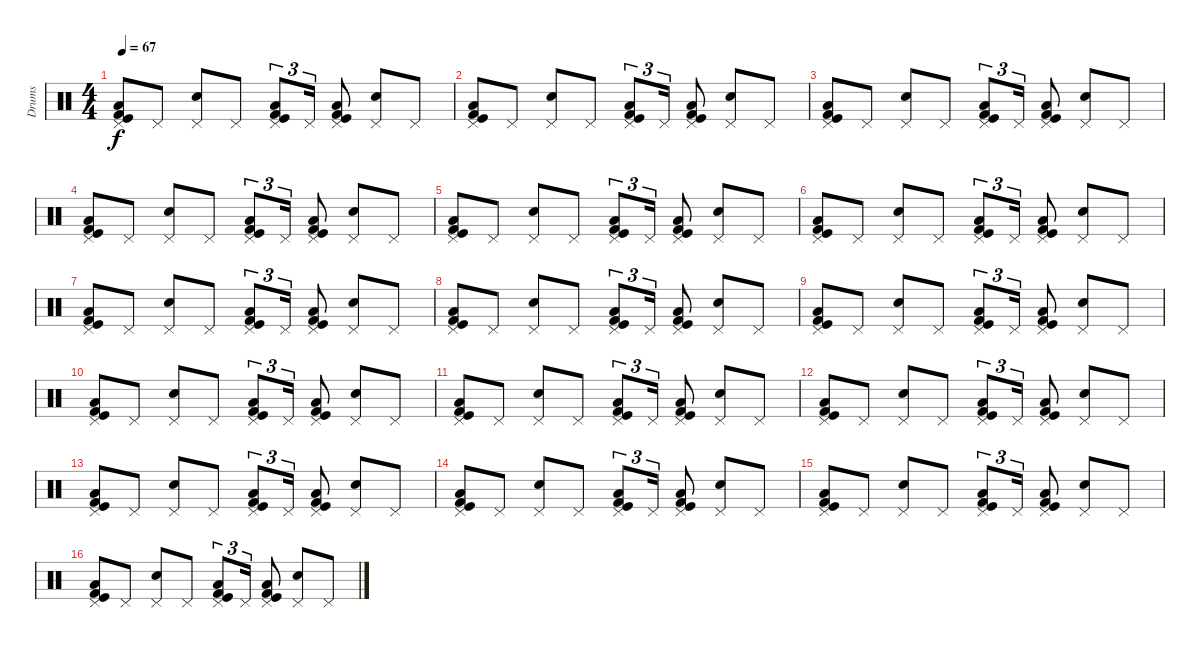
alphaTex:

\track ("Drums" "Drums") {instrument percussion}
\staff {score}
\articulation defaults
\ts (4 4)
\tempo 67
\clef neutral
\ks c
("Pedal Hi-Hat (hit)" "Kick (hit) 2" "Kick (hit)" "Low Tom (hit)").8{dy f} "Pedal Hi-Hat (hit)".8 ("Pedal Hi-Hat (hit)" "Electric Snare (hit)").8 "Pedal Hi-Hat (hit)".8 ("Pedal Hi-Hat (hit)" "Kick (hit) 2" "Kick (hit)" "Low Tom (hit)").8{tu (3 2)} "Pedal Hi-Hat (hit)".16{tu (3 2)} ("Pedal Hi-Hat (hit)" "Kick (hit) 2" "Kick (hit)" "Low Tom (hit)").8 ("Pedal Hi-Hat (hit)" "Electric Snare (hit)").8 "Pedal Hi-Hat (hit)".8 |
("Pedal Hi-Hat (hit)" "Kick (hit) 2" "Kick (hit)" "Low Tom (hit)").8 "Pedal Hi-Hat (hit)".8 ("Pedal Hi-Hat (hit)" "Electric Snare (hit)").8 "Pedal Hi-Hat (hit)".8 ("Pedal Hi-Hat (hit)" "Kick (hit) 2" "Kick (hit)" "Low Tom (hit)").8{tu (3 2)} "Pedal Hi-Hat (hit)".16{tu (3 2)} ("Pedal Hi-Hat (hit)" "Kick (hit) 2" "Kick (hit)" "Low Tom (hit)").8 ("Pedal Hi-Hat (hit)" "Electric Snare (hit)").8 "Pedal Hi-Hat (hit)".8 |
("Pedal Hi-Hat (hit)" "Kick (hit) 2" "Kick (hit)" "Low Tom (hit)").8 "Pedal Hi-Hat (hit)".8 ("Pedal Hi-Hat (hit)" "Electric Snare (hit)").8 "Pedal Hi-Hat (hit)".8 ("Pedal Hi-Hat (hit)" "Kick (hit) 2" "Kick (hit)" "Low Tom (hit)").8{tu (3 2)} "Pedal Hi-Hat (hit)".16{tu (3 2)} ("Pedal Hi-Hat (hit)" "Kick (hit) 2" "Kick (hit)" "Low Tom (hit)").8 ("Pedal Hi-Hat (hit)" "Electric Snare (hit)").8 "Pedal Hi-Hat (hit)".8 |
("Pedal Hi-Hat (hit)" "Kick (hit) 2" "Kick (hit)" "Low Tom (hit)").8 "Pedal Hi-Hat (hit)".8 ("Pedal Hi-Hat (hit)" "Electric Snare (hit)").8 "Pedal Hi-Hat (hit)".8 ("Pedal Hi-Hat (hit)" "Kick (hit) 2" "Kick (hit)" "Low Tom (hit)").8{tu (3 2)} "Pedal Hi-Hat (hit)".16{tu (3 2)} ("Pedal Hi-Hat (hit)" "Kick (hit) 2" "Kick (hit)" "Low Tom (hit)").8 ("Pedal Hi-Hat (hit)" "Electric Snare (hit)").8 "Pedal Hi-Hat (hit)".8 |
("Pedal Hi-Hat (hit)" "Kick (hit) 2" "Kick (hit)" "Low Tom (hit)").8 "Pedal Hi-Hat (hit)".8 ("Pedal Hi-Hat (hit)" "Electric Snare (hit)").8 "Pedal Hi-Hat (hit)".8 ("Pedal Hi-Hat (hit)" "Kick (hit) 2" "Kick (hit)" "Low Tom (hit)").8{tu (3 2)} "Pedal Hi-Hat (hit)".16{tu (3 2)} ("Pedal Hi-Hat (hit)" "Kick (hit) 2" "Kick (hit)" "Low Tom (hit)").8 ("Pedal Hi-Hat (hit)" "Electric Snare (hit)").8 "Pedal Hi-Hat (hit)".8 |
("Pedal Hi-Hat (hit)" "Kick (hit) 2" "Kick (hit)" "Low Tom (hit)").8 "Pedal Hi-Hat (hit)".8 ("Pedal Hi-Hat (hit)" "Electric Snare (hit)").8 "Pedal Hi-Hat (hit)".8 ("Pedal Hi-Hat (hit)" "Kick (hit) 2" "Kick (hit)" "Low Tom (hit)").8{tu (3 2)} "Pedal Hi-Hat (hit)".16{tu (3 2)} ("Pedal Hi-Hat (hit)" "Kick (hit) 2" "Kick (hit)" "Low Tom (hit)").8 ("Pedal Hi-Hat (hit)" "Electric Snare (hit)").8 "Pedal Hi-Hat (hit)".8 |
("Pedal Hi-Hat (hit)" "Kick (hit) 2" "Kick (hit)" "Low Tom (hit)").8 "Pedal Hi-Hat (hit)".8 ("Pedal Hi-Hat (hit)" "Electric Snare (hit)").8 "Pedal Hi-Hat (hit)".8 ("Pedal Hi-Hat (hit)" "Kick (hit) 2" "Kick (hit)" "Low Tom (hit)").8{tu (3 2)} "Pedal Hi-Hat (hit)".16{tu (3 2)} ("Pedal Hi-Hat (hit)" "Kick (hit) 2" "Kick (hit)" "Low Tom (hit)").8 ("Pedal Hi-Hat (hit)" "Electric Snare (hit)").8 "Pedal Hi-Hat (hit)".8 |
("Pedal Hi-Hat (hit)" "Kick (hit) 2" "Kick (hit)" "Low Tom (hit)").8 "Pedal Hi-Hat (hit)".8 ("Pedal Hi-Hat (hit)" "Electric Snare (hit)").8 "Pedal Hi-Hat (hit)".8 ("Pedal Hi-Hat (hit)" "Kick (hit) 2" "Kick (hit)" "Low Tom (hit)").8{tu (3 2)} "Pedal Hi-Hat (hit)".16{tu (3 2)} ("Pedal Hi-Hat (hit)" "Kick (hit) 2" "Kick (hit)" "Low Tom (hit)").8 ("Pedal Hi-Hat (hit)" "Electric Snare (hit)").8 "Pedal Hi-Hat (hit)".8 |
("Pedal Hi-Hat (hit)" "Kick (hit) 2" "Kick (hit)" "Low Tom (hit)").8 "Pedal Hi-Hat (hit)".8 ("Pedal Hi-Hat (hit)" "Electric Snare (hit)").8 "Pedal Hi-Hat (hit)".8 ("Pedal Hi-Hat (hit)" "Kick (hit) 2" "Kick (hit)" "Low Tom (hit)").8{tu (3 2)} "Pedal Hi-Hat (hit)".16{tu (3 2)} ("Pedal Hi-Hat (hit)" "Kick (hit) 2" "Kick (hit)" "Low Tom (hit)").8 ("Pedal Hi-Hat (hit)" "Electric Snare (hit)").8 "Pedal Hi-Hat (hit)".8 |
("Pedal Hi-Hat (hit)" "Kick (hit) 2" "Kick (hit)" "Low Tom (hit)").8 "Pedal Hi-Hat (hit)".8 ("Pedal Hi-Hat (hit)" "Electric Snare (hit)").8 "Pedal Hi-Hat (hit)".8 ("Pedal Hi-Hat (hit)" "Kick (hit) 2" "Kick (hit)" "Low Tom (hit)").8{tu (3 2)} "Pedal Hi-Hat (hit)".16{tu (3 2)} ("Pedal Hi-Hat (hit)" "Kick (hit) 2" "Kick (hit)" "Low Tom (hit)").8 ("Pedal Hi-Hat (hit)" "Electric Snare (hit)").8 "Pedal Hi-Hat (hit)".8 |
("Pedal Hi-Hat (hit)" "Kick (hit) 2" "Kick (hit)" "Low Tom (hit)").8 "Pedal Hi-Hat (hit)".8 ("Pedal Hi-Hat (hit)" "Electric Snare (hit)").8 "Pedal Hi-Hat (hit)".8 ("Pedal Hi-Hat (hit)" "Kick (hit) 2" "Kick (hit)" "Low Tom (hit)").8{tu (3 2)} "Pedal Hi-Hat (hit)".16{tu (3 2)} ("Pedal Hi-Hat (hit)" "Kick (hit) 2" "Kick (hit)" "Low Tom (hit)").8 ("Pedal Hi-Hat (hit)" "Electric Snare (hit)").8 "Pedal Hi-Hat (hit)".8 |
("Pedal Hi-Hat (hit)" "Kick (hit) 2" "Kick (hit)" "Low Tom (hit)").8 "Pedal Hi-Hat (hit)".8 ("Pedal Hi-Hat (hit)" "Electric Snare (hit)").8 "Pedal Hi-Hat (hit)".8 ("Pedal Hi-Hat (hit)" "Kick (hit) 2" "Kick (hit)" "Low Tom (hit)").8{tu (3 2)} "Pedal Hi-Hat (hit)".16{tu (3 2)} ("Pedal Hi-Hat (hit)" "Kick (hit) 2" "Kick (hit)" "Low Tom (hit)").8 ("Pedal Hi-Hat (hit)" "Electric Snare (hit)").8 "Pedal Hi-Hat (hit)".8 |
("Pedal Hi-Hat (hit)" "Kick (hit) 2" "Kick (hit)" "Low Tom (hit)").8 "Pedal Hi-Hat (hit)".8 ("Pedal Hi-Hat (hit)" "Electric Snare (hit)").8 "Pedal Hi-Hat (hit)".8 ("Pedal Hi-Hat (hit)" "Kick (hit) 2" "Kick (hit)" "Low Tom (hit)").8{tu (3 2)} "Pedal Hi-Hat (hit)".16{tu (3 2)} ("Pedal Hi-Hat (hit)" "Kick (hit) 2" "Kick (hit)" "Low Tom (hit)").8 ("Pedal Hi-Hat (hit)" "Electric Snare (hit)").8 "Pedal Hi-Hat (hit)".8 |
("Pedal Hi-Hat (hit)" "Kick (hit) 2" "Kick (hit)" "Low Tom (hit)").8 "Pedal Hi-Hat (hit)".8 ("Pedal Hi-Hat (hit)" "Electric Snare (hit)").8 "Pedal Hi-Hat (hit)".8 ("Pedal Hi-Hat (hit)" "Kick (hit) 2" "Kick (hit)" "Low Tom (hit)").8{tu (3 2)} "Pedal Hi-Hat (hit)".16{tu (3 2)} ("Pedal Hi-Hat (hit)" "Kick (hit) 2" "Kick (hit)" "Low Tom (hit)").8 ("Pedal Hi-Hat (hit)" "Electric Snare (hit)").8 "Pedal Hi-Hat (hit)".8 |
("Pedal Hi-Hat (hit)" "Kick (hit) 2" "Kick (hit)" "Low Tom (hit)").8 "Pedal Hi-Hat (hit)".8 ("Pedal Hi-Hat (hit)" "Electric Snare (hit)").8 "Pedal Hi-Hat (hit)".8 ("Pedal Hi-Hat (hit)" "Kick (hit) 2" "Kick (hit)" "Low Tom (hit)").8{tu (3 2)} "Pedal Hi-Hat (hit)".16{tu (3 2)} ("Pedal Hi-Hat (hit)" "Kick (hit) 2" "Kick (hit)" "Low Tom (hit)").8 ("Pedal Hi-Hat (hit)" "Electric Snare (hit)").8 "Pedal Hi-Hat (hit)".8 |
("Pedal Hi-Hat (hit)" "Kick (hit) 2" "Kick (hit)" "Low Tom (hit)").8 "Pedal Hi-Hat (hit)".8 ("Pedal Hi-Hat (hit)" "Electric Snare (hit)").8 "Pedal Hi-Hat (hit)".8 ("Pedal Hi-Hat (hit)" "Kick (hit) 2" "Kick (hit)" "Low Tom (hit)").8{tu (3 2)} "Pedal Hi-Hat (hit)".16{tu (3 2)} ("Pedal Hi-Hat (hit)" "Kick (hit) 2" "Kick (hit)" "Low Tom (hit)").8 ("Pedal Hi-Hat (hit)" "Electric Snare (hit)").8 "Pedal Hi-Hat (hit)".8
